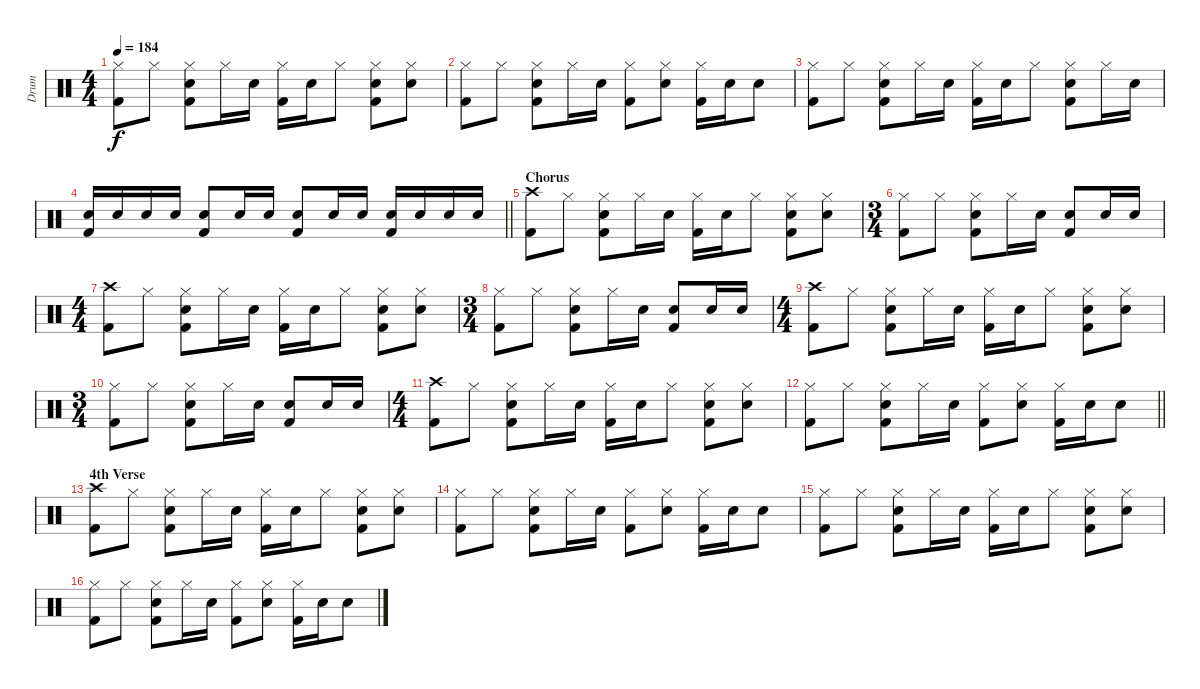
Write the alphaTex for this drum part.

\track ("Drum" "Drum") {instrument percussion}
\staff {score}
\articulation defaults
\ts (4 4)
\tempo 184
\clef neutral
\ks c
("Hi-Hat (closed)" "Kick (hit) 2").8{dy f} "Hi-Hat (closed)".8 ("Hi-Hat (closed)" "Electric Snare (hit)" "Kick (hit) 2").8 "Hi-Hat (closed)".16 "Electric Snare (hit)".16 ("Hi-Hat (closed)" "Kick (hit) 2").16 "Electric Snare (hit)".16 "Hi-Hat (closed)".8 ("Hi-Hat (closed)" "Electric Snare (hit)" "Kick (hit) 2").8 ("Hi-Hat (closed)" "Electric Snare (hit)").8 |
("Hi-Hat (closed)" "Kick (hit) 2").8 "Hi-Hat (closed)".8 ("Hi-Hat (closed)" "Electric Snare (hit)" "Kick (hit) 2").8 "Hi-Hat (closed)".16 "Electric Snare (hit)".16 ("Hi-Hat (closed)" "Kick (hit) 2").8 ("Hi-Hat (closed)" "Electric Snare (hit)").8 ("Hi-Hat (closed)" "Kick (hit) 2").16 "Electric Snare (hit)".16 "Electric Snare (hit)".8 |
("Hi-Hat (closed)" "Kick (hit) 2").8 "Hi-Hat (closed)".8 ("Hi-Hat (closed)" "Electric Snare (hit)" "Kick (hit) 2").8 "Hi-Hat (closed)".16 "Electric Snare (hit)".16 ("Hi-Hat (closed)" "Kick (hit) 2").16 "Electric Snare (hit)".16 "Hi-Hat (closed)".8 ("Hi-Hat (closed)" "Electric Snare (hit)" "Kick (hit) 2").8 "Hi-Hat (closed)".16 "Electric Snare (hit)".16 |
\barLineRight lightlight
("Electric Snare (hit)" "Kick (hit) 2").16 "Electric Snare (hit)".16 "Electric Snare (hit)".16 "Electric Snare (hit)".16 ("Electric Snare (hit)" "Kick (hit) 2").8 "Electric Snare (hit)".16 "Electric Snare (hit)".16 ("Electric Snare (hit)" "Kick (hit) 2").8 "Electric Snare (hit)".16 "Electric Snare (hit)".16 ("Electric Snare (hit)" "Kick (hit) 2").16 "Electric Snare (hit)".16 "Electric Snare (hit)".16 "Electric Snare (hit)".16 |
\section ("" "Chorus")
("Crash high (hit)" "Kick (hit) 2").8 "Hi-Hat (closed)".8 ("Hi-Hat (closed)" "Electric Snare (hit)" "Kick (hit) 2").8 "Hi-Hat (closed)".16 "Electric Snare (hit)".16 ("Hi-Hat (closed)" "Kick (hit) 2").16 "Electric Snare (hit)".16 "Hi-Hat (closed)".8 ("Hi-Hat (closed)" "Electric Snare (hit)" "Kick (hit) 2").8 ("Hi-Hat (closed)" "Electric Snare (hit)").8 |
\ts (3 4)
("Hi-Hat (closed)" "Kick (hit) 2").8 "Hi-Hat (closed)".8 ("Hi-Hat (closed)" "Electric Snare (hit)" "Kick (hit) 2").8 "Hi-Hat (closed)".16 "Electric Snare (hit)".16 ("Electric Snare (hit)" "Kick (hit) 2").8 "Electric Snare (hit)".16 "Electric Snare (hit)".16 |
\ts (4 4)
("Crash high (hit)" "Kick (hit) 2").8 "Hi-Hat (closed)".8 ("Hi-Hat (closed)" "Electric Snare (hit)" "Kick (hit) 2").8 "Hi-Hat (closed)".16 "Electric Snare (hit)".16 ("Hi-Hat (closed)" "Kick (hit) 2").16 "Electric Snare (hit)".16 "Hi-Hat (closed)".8 ("Hi-Hat (closed)" "Electric Snare (hit)" "Kick (hit) 2").8 ("Hi-Hat (closed)" "Electric Snare (hit)").8 |
\ts (3 4)
("Hi-Hat (closed)" "Kick (hit) 2").8 "Hi-Hat (closed)".8 ("Hi-Hat (closed)" "Electric Snare (hit)" "Kick (hit) 2").8 "Hi-Hat (closed)".16 "Electric Snare (hit)".16 ("Electric Snare (hit)" "Kick (hit) 2").8 "Electric Snare (hit)".16 "Electric Snare (hit)".16 |
\ts (4 4)
("Crash high (hit)" "Kick (hit) 2").8 "Hi-Hat (closed)".8 ("Hi-Hat (closed)" "Electric Snare (hit)" "Kick (hit) 2").8 "Hi-Hat (closed)".16 "Electric Snare (hit)".16 ("Hi-Hat (closed)" "Kick (hit) 2").16 "Electric Snare (hit)".16 "Hi-Hat (closed)".8 ("Hi-Hat (closed)" "Electric Snare (hit)" "Kick (hit) 2").8 ("Hi-Hat (closed)" "Electric Snare (hit)").8 |
\ts (3 4)
("Hi-Hat (closed)" "Kick (hit) 2").8 "Hi-Hat (closed)".8 ("Hi-Hat (closed)" "Electric Snare (hit)" "Kick (hit) 2").8 "Hi-Hat (closed)".16 "Electric Snare (hit)".16 ("Electric Snare (hit)" "Kick (hit) 2").8 "Electric Snare (hit)".16 "Electric Snare (hit)".16 |
\ts (4 4)
("Crash high (hit)" "Kick (hit) 2").8 "Hi-Hat (closed)".8 ("Hi-Hat (closed)" "Electric Snare (hit)" "Kick (hit) 2").8 "Hi-Hat (closed)".16 "Electric Snare (hit)".16 ("Hi-Hat (closed)" "Kick (hit) 2").16 "Electric Snare (hit)".16 "Hi-Hat (closed)".8 ("Hi-Hat (closed)" "Electric Snare (hit)" "Kick (hit) 2").8 ("Hi-Hat (closed)" "Electric Snare (hit)").8 |
\barLineRight lightlight
("Hi-Hat (closed)" "Kick (hit) 2").8 "Hi-Hat (closed)".8 ("Hi-Hat (closed)" "Electric Snare (hit)" "Kick (hit) 2").8 "Hi-Hat (closed)".16 "Electric Snare (hit)".16 ("Hi-Hat (closed)" "Kick (hit) 2").8 ("Hi-Hat (closed)" "Electric Snare (hit)").8 ("Hi-Hat (closed)" "Kick (hit) 2").16 "Electric Snare (hit)".16 "Electric Snare (hit)".8 |
\section ("" "4th Verse")
("Crash high (hit)" "Kick (hit) 2").8 "Hi-Hat (closed)".8 ("Hi-Hat (closed)" "Electric Snare (hit)" "Kick (hit) 2").8 "Hi-Hat (closed)".16 "Electric Snare (hit)".16 ("Hi-Hat (closed)" "Kick (hit) 2").16 "Electric Snare (hit)".16 "Hi-Hat (closed)".8 ("Hi-Hat (closed)" "Electric Snare (hit)" "Kick (hit) 2").8 ("Hi-Hat (closed)" "Electric Snare (hit)").8 |
("Hi-Hat (closed)" "Kick (hit) 2").8 "Hi-Hat (closed)".8 ("Hi-Hat (closed)" "Electric Snare (hit)" "Kick (hit) 2").8 "Hi-Hat (closed)".16 "Electric Snare (hit)".16 ("Hi-Hat (closed)" "Kick (hit) 2").8 ("Hi-Hat (closed)" "Electric Snare (hit)").8 ("Hi-Hat (closed)" "Kick (hit) 2").16 "Electric Snare (hit)".16 "Electric Snare (hit)".8 |
("Hi-Hat (closed)" "Kick (hit) 2").8 "Hi-Hat (closed)".8 ("Hi-Hat (closed)" "Electric Snare (hit)" "Kick (hit) 2").8 "Hi-Hat (closed)".16 "Electric Snare (hit)".16 ("Hi-Hat (closed)" "Kick (hit) 2").16 "Electric Snare (hit)".16 "Hi-Hat (closed)".8 ("Hi-Hat (closed)" "Electric Snare (hit)" "Kick (hit) 2").8 ("Hi-Hat (closed)" "Electric Snare (hit)").8 |
("Hi-Hat (closed)" "Kick (hit) 2").8 "Hi-Hat (closed)".8 ("Hi-Hat (closed)" "Electric Snare (hit)" "Kick (hit) 2").8 "Hi-Hat (closed)".16 "Electric Snare (hit)".16 ("Hi-Hat (closed)" "Kick (hit) 2").8 ("Hi-Hat (closed)" "Electric Snare (hit)").8 ("Hi-Hat (closed)" "Kick (hit) 2").16 "Electric Snare (hit)".16 "Electric Snare (hit)".8
